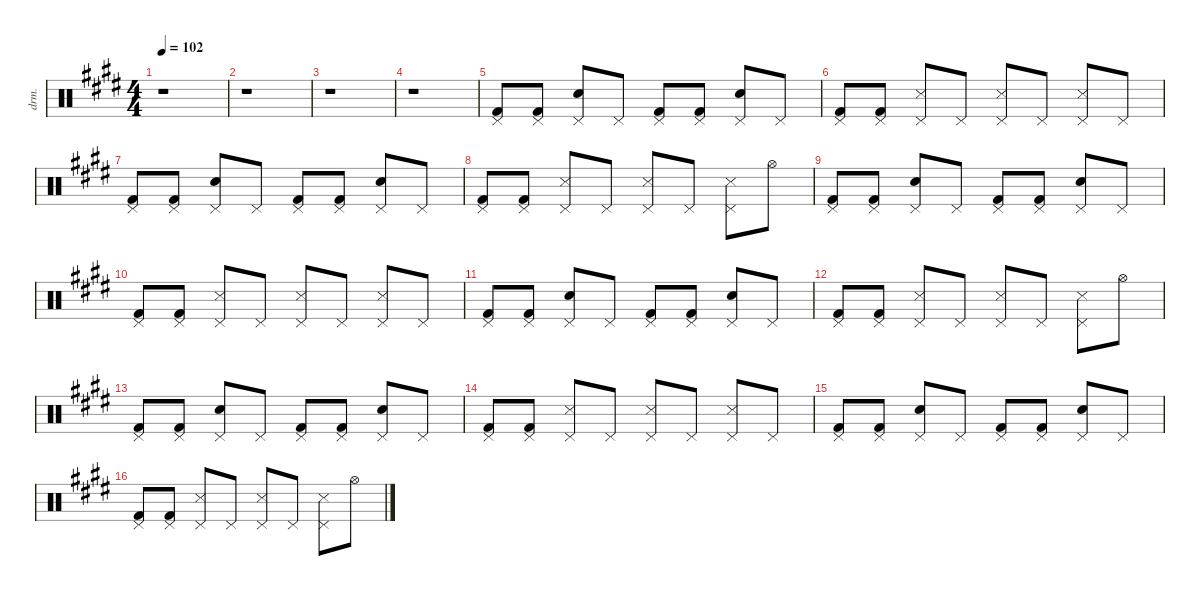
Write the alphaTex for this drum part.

\defaultSystemsLayout 4
\hideDynamics
\bracketExtendMode nobrackets
\otherSystemsTrackNameOrientation horizontal
\track ("Percussion" "drm.") {instrument percussion}
\staff {score}
\articulation defaults
\ts (4 4)
\beaming (8 2 2 2 2)
\tempo 102
\clef neutral
\ks c#minor
r.1{dy f} |
r.1 |
r.1{beam Down} |
r.1{beam Down} |
("Kick (hit) 2"{acc forcenatural} "Pedal Hi-Hat (hit)"{acc forcenatural}).8{beam Up} ("Kick (hit) 2"{acc forcenatural} "Pedal Hi-Hat (hit)"{acc forcenatural}).8{beam Up} ("Snare (hit) 2"{acc forcenatural} "Pedal Hi-Hat (hit)"{acc forcenatural}).8{beam Up} "Pedal Hi-Hat (hit)"{acc forcenatural}.8{beam Up} ("Kick (hit) 2"{acc forcenatural} "Pedal Hi-Hat (hit)"{acc forcenatural}).8{beam Up} ("Kick (hit) 2"{acc forcenatural} "Pedal Hi-Hat (hit)"{acc forcenatural}).8{beam Up} ("Snare (hit) 2"{acc forcenatural} "Pedal Hi-Hat (hit)"{acc forcenatural}).8{beam Up} "Pedal Hi-Hat (hit)"{acc forcenatural}.8{beam Up} |
("Kick (hit) 2"{acc forcenatural} "Pedal Hi-Hat (hit)"{acc forcenatural}).8{beam Up} ("Kick (hit) 2"{acc forcenatural} "Pedal Hi-Hat (hit)"{acc forcenatural}).8{beam Up} ("Metronome (hit)"{acc forcenatural} "Pedal Hi-Hat (hit)"{acc forcenatural}).8{beam Up} "Pedal Hi-Hat (hit)"{acc forcenatural}.8{beam Up} ("Metronome (hit)"{acc forcenatural} "Pedal Hi-Hat (hit)"{acc forcenatural}).8{beam Up} "Pedal Hi-Hat (hit)"{acc forcenatural}.8{beam Up} ("Metronome (hit)"{acc forcenatural} "Pedal Hi-Hat (hit)"{acc forcenatural}).8{beam Up} "Pedal Hi-Hat (hit)"{acc forcenatural}.8{beam Up} |
("Kick (hit) 2"{acc forcenatural} "Pedal Hi-Hat (hit)"{acc forcenatural}).8{beam Up} ("Kick (hit) 2"{acc forcenatural} "Pedal Hi-Hat (hit)"{acc forcenatural}).8{beam Up} ("Snare (hit) 2"{acc forcenatural} "Pedal Hi-Hat (hit)"{acc forcenatural}).8{beam Up} "Pedal Hi-Hat (hit)"{acc forcenatural}.8{beam Up} ("Kick (hit) 2"{acc forcenatural} "Pedal Hi-Hat (hit)"{acc forcenatural}).8{beam Up} ("Kick (hit) 2"{acc forcenatural} "Pedal Hi-Hat (hit)"{acc forcenatural}).8{beam Up} ("Snare (hit) 2"{acc forcenatural} "Pedal Hi-Hat (hit)"{acc forcenatural}).8{beam Up} "Pedal Hi-Hat (hit)"{acc forcenatural}.8{beam Up} |
("Kick (hit) 2"{acc forcenatural} "Pedal Hi-Hat (hit)"{acc forcenatural}).8{beam Up} ("Kick (hit) 2"{acc forcenatural} "Pedal Hi-Hat (hit)"{acc forcenatural}).8{beam Up} ("Metronome (hit)"{acc forcenatural} "Pedal Hi-Hat (hit)"{acc forcenatural}).8{beam Up} "Pedal Hi-Hat (hit)"{acc forcenatural}.8{beam Up} ("Metronome (hit)"{acc forcenatural} "Pedal Hi-Hat (hit)"{acc forcenatural}).8{beam Up} "Pedal Hi-Hat (hit)"{acc forcenatural}.8{beam Up} ("Metronome (hit)"{acc forcenatural} "Pedal Hi-Hat (hit)"{acc forcenatural}).8{beam Down} "Hi-Hat (open)"{acc forcenatural}.8{beam Down} |
("Kick (hit) 2"{acc forcenatural} "Pedal Hi-Hat (hit)"{acc forcenatural}).8{beam Up} ("Kick (hit) 2"{acc forcenatural} "Pedal Hi-Hat (hit)"{acc forcenatural}).8{beam Up} ("Snare (hit) 2"{acc forcenatural} "Pedal Hi-Hat (hit)"{acc forcenatural}).8{beam Up} "Pedal Hi-Hat (hit)"{acc forcenatural}.8{beam Up} ("Kick (hit) 2"{acc forcenatural} "Pedal Hi-Hat (hit)"{acc forcenatural}).8{beam Up} ("Kick (hit) 2"{acc forcenatural} "Pedal Hi-Hat (hit)"{acc forcenatural}).8{beam Up} ("Snare (hit) 2"{acc forcenatural} "Pedal Hi-Hat (hit)"{acc forcenatural}).8{beam Up} "Pedal Hi-Hat (hit)"{acc forcenatural}.8{beam Up} |
("Kick (hit) 2"{acc forcenatural} "Pedal Hi-Hat (hit)"{acc forcenatural}).8{beam Up} ("Kick (hit) 2"{acc forcenatural} "Pedal Hi-Hat (hit)"{acc forcenatural}).8{beam Up} ("Metronome (hit)"{acc forcenatural} "Pedal Hi-Hat (hit)"{acc forcenatural}).8{beam Up} "Pedal Hi-Hat (hit)"{acc forcenatural}.8{beam Up} ("Metronome (hit)"{acc forcenatural} "Pedal Hi-Hat (hit)"{acc forcenatural}).8{beam Up} "Pedal Hi-Hat (hit)"{acc forcenatural}.8{beam Up} ("Metronome (hit)"{acc forcenatural} "Pedal Hi-Hat (hit)"{acc forcenatural}).8{beam Up} "Pedal Hi-Hat (hit)"{acc forcenatural}.8{beam Up} |
("Kick (hit) 2"{acc forcenatural} "Pedal Hi-Hat (hit)"{acc forcenatural}).8{beam Up} ("Kick (hit) 2"{acc forcenatural} "Pedal Hi-Hat (hit)"{acc forcenatural}).8{beam Up} ("Snare (hit) 2"{acc forcenatural} "Pedal Hi-Hat (hit)"{acc forcenatural}).8{beam Up} "Pedal Hi-Hat (hit)"{acc forcenatural}.8{beam Up} ("Kick (hit) 2"{acc forcenatural} "Pedal Hi-Hat (hit)"{acc forcenatural}).8{beam Up} ("Kick (hit) 2"{acc forcenatural} "Pedal Hi-Hat (hit)"{acc forcenatural}).8{beam Up} ("Snare (hit) 2"{acc forcenatural} "Pedal Hi-Hat (hit)"{acc forcenatural}).8{beam Up} "Pedal Hi-Hat (hit)"{acc forcenatural}.8{beam Up} |
("Kick (hit) 2"{acc forcenatural} "Pedal Hi-Hat (hit)"{acc forcenatural}).8{beam Up} ("Kick (hit) 2"{acc forcenatural} "Pedal Hi-Hat (hit)"{acc forcenatural}).8{beam Up} ("Metronome (hit)"{acc forcenatural} "Pedal Hi-Hat (hit)"{acc forcenatural}).8{beam Up} "Pedal Hi-Hat (hit)"{acc forcenatural}.8{beam Up} ("Metronome (hit)"{acc forcenatural} "Pedal Hi-Hat (hit)"{acc forcenatural}).8{beam Up} "Pedal Hi-Hat (hit)"{acc forcenatural}.8{beam Up} ("Metronome (hit)"{acc forcenatural} "Pedal Hi-Hat (hit)"{acc forcenatural}).8{beam Down} "Hi-Hat (open)"{acc forcenatural}.8{beam Down} |
("Kick (hit) 2"{acc forcenatural} "Pedal Hi-Hat (hit)"{acc forcenatural}).8{beam Up} ("Kick (hit) 2"{acc forcenatural} "Pedal Hi-Hat (hit)"{acc forcenatural}).8{beam Up} ("Snare (hit) 2"{acc forcenatural} "Pedal Hi-Hat (hit)"{acc forcenatural}).8{beam Up} "Pedal Hi-Hat (hit)"{acc forcenatural}.8{beam Up} ("Kick (hit) 2"{acc forcenatural} "Pedal Hi-Hat (hit)"{acc forcenatural}).8{beam Up} ("Kick (hit) 2"{acc forcenatural} "Pedal Hi-Hat (hit)"{acc forcenatural}).8{beam Up} ("Snare (hit) 2"{acc forcenatural} "Pedal Hi-Hat (hit)"{acc forcenatural}).8{beam Up} "Pedal Hi-Hat (hit)"{acc forcenatural}.8{beam Up} |
("Kick (hit) 2"{acc forcenatural} "Pedal Hi-Hat (hit)"{acc forcenatural}).8{beam Up} ("Kick (hit) 2"{acc forcenatural} "Pedal Hi-Hat (hit)"{acc forcenatural}).8{beam Up} ("Metronome (hit)"{acc forcenatural} "Pedal Hi-Hat (hit)"{acc forcenatural}).8{beam Up} "Pedal Hi-Hat (hit)"{acc forcenatural}.8{beam Up} ("Metronome (hit)"{acc forcenatural} "Pedal Hi-Hat (hit)"{acc forcenatural}).8{beam Up} "Pedal Hi-Hat (hit)"{acc forcenatural}.8{beam Up} ("Metronome (hit)"{acc forcenatural} "Pedal Hi-Hat (hit)"{acc forcenatural}).8{beam Up} "Pedal Hi-Hat (hit)"{acc forcenatural}.8{beam Up} |
("Kick (hit) 2"{acc forcenatural} "Pedal Hi-Hat (hit)"{acc forcenatural}).8{beam Up} ("Kick (hit) 2"{acc forcenatural} "Pedal Hi-Hat (hit)"{acc forcenatural}).8{beam Up} ("Snare (hit) 2"{acc forcenatural} "Pedal Hi-Hat (hit)"{acc forcenatural}).8{beam Up} "Pedal Hi-Hat (hit)"{acc forcenatural}.8{beam Up} ("Kick (hit) 2"{acc forcenatural} "Pedal Hi-Hat (hit)"{acc forcenatural}).8{beam Up} ("Kick (hit) 2"{acc forcenatural} "Pedal Hi-Hat (hit)"{acc forcenatural}).8{beam Up} ("Snare (hit) 2"{acc forcenatural} "Pedal Hi-Hat (hit)"{acc forcenatural}).8{beam Up} "Pedal Hi-Hat (hit)"{acc forcenatural}.8{beam Up} |
("Kick (hit) 2"{acc forcenatural} "Pedal Hi-Hat (hit)"{acc forcenatural}).8{beam Up} ("Kick (hit) 2"{acc forcenatural} "Pedal Hi-Hat (hit)"{acc forcenatural}).8{beam Up} ("Metronome (hit)"{acc forcenatural} "Pedal Hi-Hat (hit)"{acc forcenatural}).8{beam Up} "Pedal Hi-Hat (hit)"{acc forcenatural}.8{beam Up} ("Metronome (hit)"{acc forcenatural} "Pedal Hi-Hat (hit)"{acc forcenatural}).8{beam Up} "Pedal Hi-Hat (hit)"{acc forcenatural}.8{beam Up} ("Metronome (hit)"{acc forcenatural} "Pedal Hi-Hat (hit)"{acc forcenatural}).8{beam Down} "Hi-Hat (open)"{acc forcenatural}.8{beam Down}
